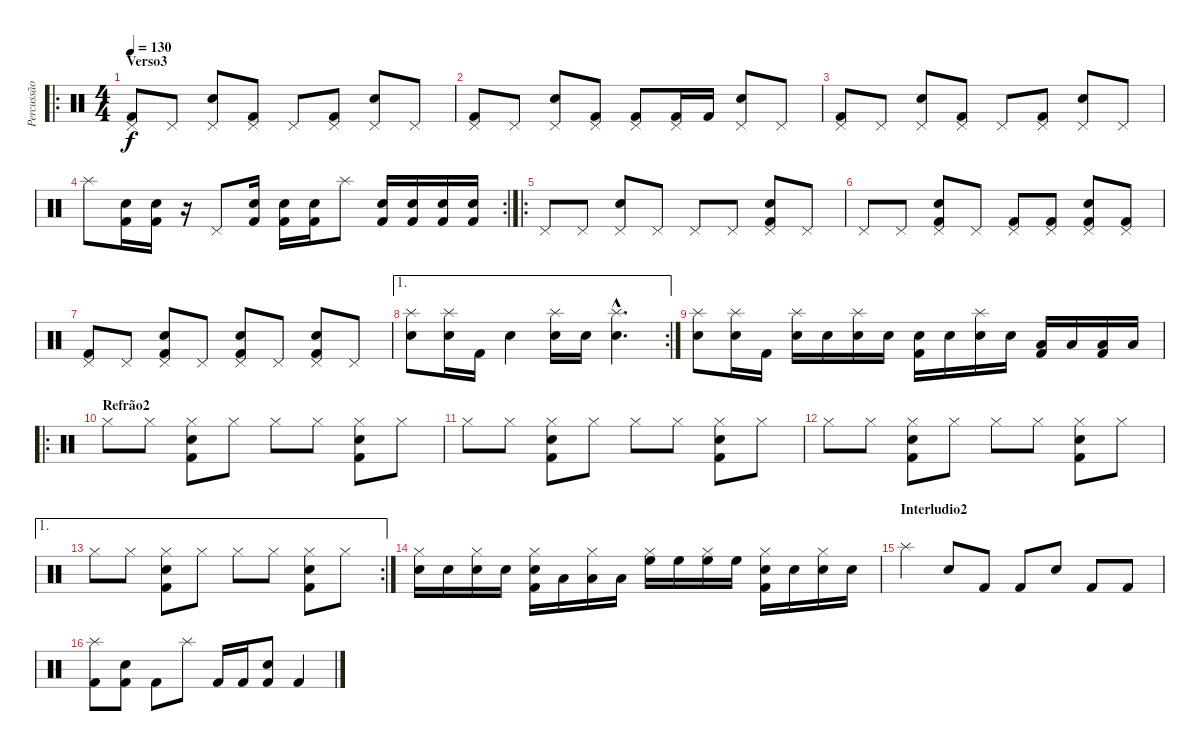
\track ("Percussão" "Percussão") {instrument percussion}
\staff {score}
\articulation defaults
\ro
\ts (4 4)
\section ("" "Verso3")
\tempo 130
\clef neutral
\ks c
("Kick (hit) 2" "Pedal Hi-Hat (hit)").8{dy f} "Pedal Hi-Hat (hit)".8 ("Snare (hit) 2" "Pedal Hi-Hat (hit)").8 ("Kick (hit) 2" "Pedal Hi-Hat (hit)").8 "Pedal Hi-Hat (hit)".8 ("Kick (hit) 2" "Pedal Hi-Hat (hit)").8 ("Snare (hit) 2" "Pedal Hi-Hat (hit)").8 "Pedal Hi-Hat (hit)".8 |
("Kick (hit) 2" "Pedal Hi-Hat (hit)").8 "Pedal Hi-Hat (hit)".8 ("Snare (hit) 2" "Pedal Hi-Hat (hit)").8 ("Kick (hit) 2" "Pedal Hi-Hat (hit)").8 ("Kick (hit) 2" "Pedal Hi-Hat (hit)").8 ("Kick (hit) 2" "Pedal Hi-Hat (hit)").16 "Kick (hit) 2".16 ("Snare (hit) 2" "Pedal Hi-Hat (hit)").8 "Pedal Hi-Hat (hit)".8 |
("Kick (hit) 2" "Pedal Hi-Hat (hit)").8 "Pedal Hi-Hat (hit)".8 ("Snare (hit) 2" "Pedal Hi-Hat (hit)").8 ("Kick (hit) 2" "Pedal Hi-Hat (hit)").8 "Pedal Hi-Hat (hit)".8 ("Kick (hit) 2" "Pedal Hi-Hat (hit)").8 ("Snare (hit) 2" "Pedal Hi-Hat (hit)").8 "Pedal Hi-Hat (hit)".8 |
\rc 2 "Splash (hit)".8
("Kick (hit) 2" "Snare (hit) 2").16 ("Kick (hit) 2" "Snare (hit) 2").16 r.16 "Pedal Hi-Hat (hit)".8 ("Kick (hit) 2" "Snare (hit) 2").16 ("Kick (hit) 2" "Snare (hit) 2").16 ("Kick (hit) 2" "Snare (hit) 2").16 "Splash (hit)".8 ("Kick (hit) 2" "Snare (hit) 2").16 ("Kick (hit) 2" "Snare (hit) 2").16 ("Kick (hit) 2" "Snare (hit) 2").16 ("Kick (hit) 2" "Snare (hit) 2").16 |
\ro "Pedal Hi-Hat (hit)".8 "Pedal Hi-Hat (hit)".8
("Snare (hit) 2" "Pedal Hi-Hat (hit)").8 "Pedal Hi-Hat (hit)".8 "Pedal Hi-Hat (hit)".8 "Pedal Hi-Hat (hit)".8 ("Kick (hit) 2" "Snare (hit) 2" "Pedal Hi-Hat (hit)").8 "Pedal Hi-Hat (hit)".8 |
"Pedal Hi-Hat (hit)".8 "Pedal Hi-Hat (hit)".8 ("Kick (hit) 2" "Snare (hit) 2" "Pedal Hi-Hat (hit)").8 "Pedal Hi-Hat (hit)".8 ("Kick (hit) 2" "Pedal Hi-Hat (hit)").8 ("Kick (hit) 2" "Pedal Hi-Hat (hit)").8 ("Kick (hit) 2" "Snare (hit) 2" "Pedal Hi-Hat (hit)").8 ("Kick (hit) 2" "Pedal Hi-Hat (hit)").8 |
("Kick (hit) 2" "Pedal Hi-Hat (hit)").8 "Pedal Hi-Hat (hit)".8 ("Kick (hit) 2" "Snare (hit) 2" "Pedal Hi-Hat (hit)").8 "Pedal Hi-Hat (hit)".8 ("Kick (hit) 2" "Snare (hit) 2" "Pedal Hi-Hat (hit)").8 "Pedal Hi-Hat (hit)".8 ("Kick (hit) 2" "Snare (hit) 2" "Pedal Hi-Hat (hit)").8 "Pedal Hi-Hat (hit)".8 |
\ae 1
\rc 2
("Snare (hit) 2" "Splash (hit)").8 ("Snare (hit) 2" "Splash (hit)").16 "Kick (hit) 2".16 "Snare (hit) 2".4 ("Snare (hit) 2" "Splash (hit)").16 "Snare (hit) 2".16 ("Snare (hit) 2"{hac} "Splash (hit)"{hac}).4{d} |
("Snare (hit) 2" "Splash (hit)").8 ("Snare (hit) 2" "Splash (hit)").16 "Kick (hit) 2".16 ("Snare (hit) 2" "Splash (hit)").16 "Snare (hit) 2".16 ("Snare (hit) 2" "Splash (hit)").16 "Snare (hit) 2".16 ("Kick (hit) 2" "Snare (hit) 2").16 "Snare (hit) 2".16 ("Snare (hit) 2" "Splash (hit)").16 "Snare (hit) 2".16 ("Kick (hit) 2" "Low Tom (hit)").16 "Low Tom (hit)".16 ("Kick (hit) 2" "Low Tom (hit)").16 "Low Tom (hit)".16 |
\ro
\section ("" "Refrão2")
"Hi-Hat (closed)".8 "Hi-Hat (closed)".8 ("Kick (hit) 2" "Snare (hit) 2" "Hi-Hat (closed)").8 "Hi-Hat (closed)".8 "Hi-Hat (closed)".8 "Hi-Hat (closed)".8 ("Kick (hit) 2" "Snare (hit) 2" "Hi-Hat (closed)").8 "Hi-Hat (closed)".8 |
"Hi-Hat (closed)".8 "Hi-Hat (closed)".8 ("Kick (hit) 2" "Snare (hit) 2" "Hi-Hat (closed)").8 "Hi-Hat (closed)".8 "Hi-Hat (closed)".8 "Hi-Hat (closed)".8 ("Kick (hit) 2" "Snare (hit) 2" "Hi-Hat (closed)").8 "Hi-Hat (closed)".8 |
"Hi-Hat (closed)".8 "Hi-Hat (closed)".8 ("Kick (hit) 2" "Snare (hit) 2" "Hi-Hat (closed)").8 "Hi-Hat (closed)".8 "Hi-Hat (closed)".8 "Hi-Hat (closed)".8 ("Kick (hit) 2" "Snare (hit) 2" "Hi-Hat (closed)").8 "Hi-Hat (closed)".8 |
\ae 1
\rc 2 "Hi-Hat (closed)".8 "Hi-Hat (closed)".8
("Kick (hit) 2" "Snare (hit) 2" "Hi-Hat (closed)").8 "Hi-Hat (closed)".8 "Hi-Hat (closed)".8 "Hi-Hat (closed)".8 ("Kick (hit) 2" "Snare (hit) 2" "Hi-Hat (closed)").8 "Hi-Hat (closed)".8 |
("Snare (hit) 2" "Hi-Hat (closed)").16 "Snare (hit) 2".16 ("Snare (hit) 2" "Hi-Hat (closed)").16 "Snare (hit) 2".16 ("Kick (hit) 2" "Snare (hit) 2" "Hi-Hat (closed)").16 "Low Tom (hit)".16 ("Low Tom (hit)" "Hi-Hat (closed)").16 "Low Tom (hit)".16 ("High Floor Tom (hit)" "Hi-Hat (closed)").16 "High Floor Tom (hit)".16 ("High Floor Tom (hit)" "Hi-Hat (closed)").16 "High Floor Tom (hit)".16 ("Kick (hit) 2" "Snare (hit) 2" "Hi-Hat (closed)").16 "Snare (hit) 2".16 ("Snare (hit) 2" "Hi-Hat (closed)").16 "Snare (hit) 2".16 |
\section ("" "Interludio2")
"Splash (hit)".4 "Snare (hit) 2".8 "Kick (hit) 2".8 "Kick (hit) 2".8 "Snare (hit) 2".8 "Kick (hit) 2".8 "Kick (hit) 2".8 |
("Kick (hit) 2" "Splash (hit)").8 ("Kick (hit) 2" "Snare (hit) 2").8 "Kick (hit) 2".8 "Splash (hit)".8 "Kick (hit) 2".16 "Kick (hit) 2".16 ("Kick (hit) 2" "Snare (hit) 2").8 "Kick (hit) 2".4
